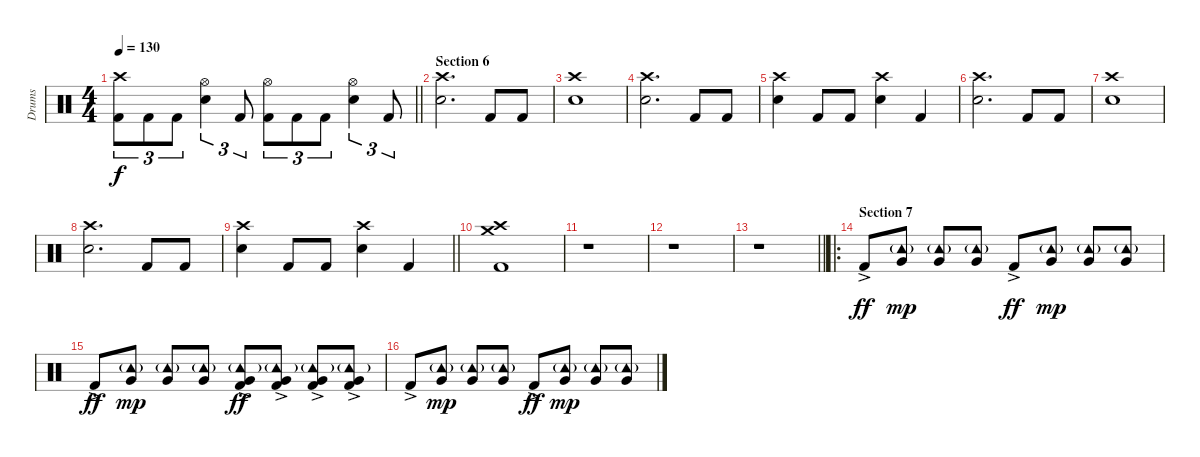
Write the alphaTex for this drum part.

\track ("Drums" "Drums") {instrument percussion}
\staff {score}
\articulation defaults
\ts (4 4)
\tempo 130
\clef neutral
\barLineRight lightlight
\ks c
("Crash high (hit)" "Kick (hit) 2").8{tu (3 2) dy f} "Kick (hit) 2".8{tu (3 2)} "Kick (hit) 2".8{tu (3 2)} ("Hi-Hat (open)" "Electric Snare (hit)").4{tu (3 2)} "Kick (hit) 2".8{tu (3 2)} ("Hi-Hat (open)" "Kick (hit) 2").8{tu (3 2)} "Kick (hit) 2".8{tu (3 2)} "Kick (hit) 2".8{tu (3 2)} ("Hi-Hat (open)" "Electric Snare (hit)").4{tu (3 2)} "Kick (hit) 2".8{tu (3 2)} |
\section ("" "Section 6")
("Crash high (hit)" "Electric Snare (hit)").2{d} "Kick (hit) 2".8 "Kick (hit) 2".8 |
("Crash high (hit)" "Electric Snare (hit)").1 |
("Crash high (hit)" "Electric Snare (hit)").2{d} "Kick (hit) 2".8 "Kick (hit) 2".8 |
("Crash high (hit)" "Electric Snare (hit)").4 "Kick (hit) 2".8 "Kick (hit) 2".8 ("Crash high (hit)" "Electric Snare (hit)").4 "Kick (hit) 2".4 |
("Crash high (hit)" "Electric Snare (hit)").2{d} "Kick (hit) 2".8 "Kick (hit) 2".8 |
("Crash high (hit)" "Electric Snare (hit)").1 |
("Crash high (hit)" "Electric Snare (hit)").2{d} "Kick (hit) 2".8 "Kick (hit) 2".8 |
\barLineRight lightlight
("Crash high (hit)" "Electric Snare (hit)").4 "Kick (hit) 2".8 "Kick (hit) 2".8 ("Crash high (hit)" "Electric Snare (hit)").4 "Kick (hit) 2".4 |
("Crash high (hit)" "Crash medium (hit)" "Kick (hit) 2").1 |
r.1 |
r.1 |
\barLineRight lightlight
r.1 |
\ro
\section ("" "Section 7")
"Kick (hit) 2"{ac}.8{dy ff} ("Tambourine (hit)"{g} "Very Low Tom (hit)").8{dy mp} ("Tambourine (hit)"{g} "Very Low Tom (hit)").8 ("Tambourine (hit)"{g} "Very Low Tom (hit)").8 "Kick (hit) 2"{ac}.8{dy ff} ("Tambourine (hit)"{g} "Very Low Tom (hit)").8{dy mp} ("Tambourine (hit)"{g} "Very Low Tom (hit)").8 ("Tambourine (hit)"{g} "Very Low Tom (hit)").8 |
"Kick (hit) 2"{ac}.8{dy ff} ("Tambourine (hit)"{g} "Very Low Tom (hit)").8{dy mp} ("Tambourine (hit)"{g} "Very Low Tom (hit)").8 ("Tambourine (hit)"{g} "Very Low Tom (hit)").8 ("Tambourine (hit)"{g} "Very Low Tom (hit)" "Kick (hit) 2"{ac}).8{dy ff} ("Tambourine (hit)"{g} "Very Low Tom (hit)" "Kick (hit) 2"{ac}).8 ("Tambourine (hit)"{g} "Very Low Tom (hit)" "Kick (hit) 2"{ac}).8 ("Tambourine (hit)"{g} "Very Low Tom (hit)" "Kick (hit) 2"{ac}).8 |
"Kick (hit) 2"{ac}.8 ("Tambourine (hit)"{g} "Very Low Tom (hit)").8{dy mp} ("Tambourine (hit)"{g} "Very Low Tom (hit)").8 ("Tambourine (hit)"{g} "Very Low Tom (hit)").8 "Kick (hit) 2"{ac}.8{dy ff} ("Tambourine (hit)"{g} "Very Low Tom (hit)").8{dy mp} ("Tambourine (hit)"{g} "Very Low Tom (hit)").8 ("Tambourine (hit)"{g} "Very Low Tom (hit)").8
